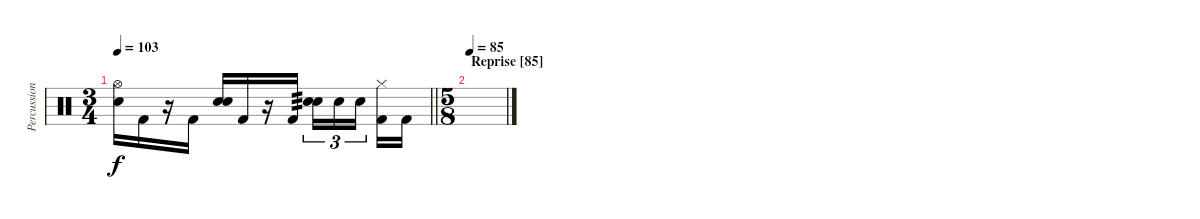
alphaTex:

\track ("Percussion" "Percussion") {instrument percussion}
\staff {score}
\articulation defaults
\ts (3 4)
\tempo 103
\clef neutral
\barLineRight lightlight
\ks c
("Hi-Hat (open)" "Snare (hit) 2").16{dy f} "Kick (hit) 2".16 r.16 "Kick (hit) 2".16 ("Snare (hit)" "Snare (hit) 2").16 "Kick (hit) 2".16 r.16 "Kick (hit) 2".16{tp 3} ("Snare (hit)" "Snare (hit) 2").16{tu (3 2)} "Snare (hit)".16{tu (3 2)} "Snare (hit)".16{tu (3 2) beam splitsecondary} ("Hi-Hat (closed)" "Kick (hit) 2").16 "Kick (hit) 2".16 |
\ts (5 8)
\section ("" "Reprise [85]")
\tempo 85
